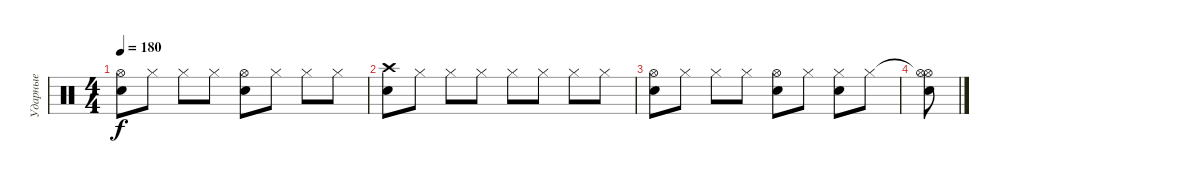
\track ("Ударные" "Ударные") {instrument percussion}
\staff {score}
\articulation defaults
\ts (4 4)
\tempo 180
\clef neutral
\ks c
("Electric Snare (hit)" "Hi-Hat (open)").8{dy f} "Hi-Hat (closed)".8 "Hi-Hat (closed)".8 "Hi-Hat (closed)".8 ("Snare (hit) 2" "Hi-Hat (open)").8 "Hi-Hat (closed)".8 "Hi-Hat (closed)".8 "Hi-Hat (closed)".8 |
("Electric Snare (hit)" "Crash high (hit)").8 "Hi-Hat (closed)".8 "Hi-Hat (closed)".8 "Hi-Hat (closed)".8 "Hi-Hat (closed)".8 "Hi-Hat (closed)".8 "Hi-Hat (closed)".8 "Hi-Hat (closed)".8 |
("Electric Snare (hit)" "Hi-Hat (open)").8 "Hi-Hat (closed)".8 "Hi-Hat (closed)".8 "Hi-Hat (closed)".8 ("Snare (hit) 2" "Hi-Hat (open)").8 "Hi-Hat (closed)".8 ("Snare (hit) 2" "Hi-Hat (closed)").8 "Hi-Hat (closed)".8 |
("Hi-Hat (open)"{t} "Electric Snare (hit)" "Hi-Hat (open)").8
